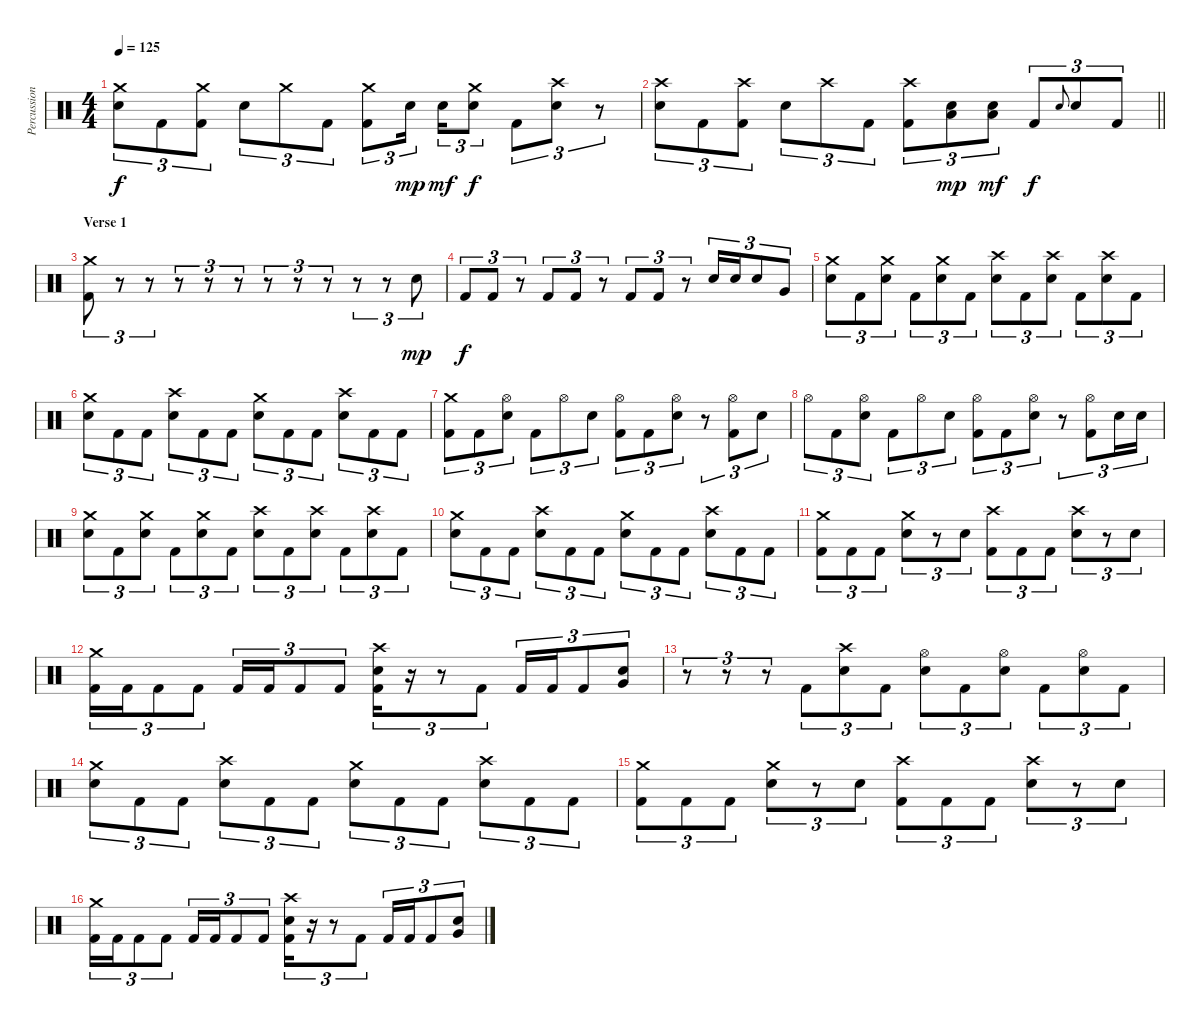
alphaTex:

\track ("Percussion" "Percussion") {instrument percussion}
\staff {score}
\articulation defaults
\ts (4 4)
\tempo 125
\clef neutral
\ks c
("Crash medium (hit)" "Electric Snare (hit)").8{tu (3 2) dy f} "Kick (hit) 2".8{tu (3 2)} ("Crash medium (hit)" "Kick (hit) 2").8{tu (3 2)} "Electric Snare (hit)".8{tu (3 2)} "Crash medium (hit)".8{tu (3 2)} "Kick (hit) 2".8{tu (3 2)} ("Crash medium (hit)" "Kick (hit) 2").8{tu (3 2)} "Electric Snare (hit)".16{tu (3 2) dy mp beam splitsecondary} "Electric Snare (hit)".16{tu (3 2) dy mf} ("Crash medium (hit)" "Electric Snare (hit)").8{tu (3 2) dy f} "Kick (hit) 2".8{tu (3 2)} ("Crash high (hit)" "Electric Snare (hit)").8{tu (3 2)} r.8{tu (3 2)} |
\barLineRight lightlight
("Crash high (hit)" "Electric Snare (hit)").8{tu (3 2)} "Kick (hit) 2".8{tu (3 2)} ("Crash high (hit)" "Kick (hit) 2").8{tu (3 2)} "Electric Snare (hit)".8{tu (3 2)} "Crash high (hit)".8{tu (3 2)} "Kick (hit) 2".8{tu (3 2)} ("Crash high (hit)" "Kick (hit) 2").8{tu (3 2)} ("Low Floor Tom (hit)" "Electric Snare (hit)").8{tu (3 2) dy mp} ("Low Floor Tom (hit)" "Electric Snare (hit)").8{tu (3 2) dy mf} "Kick (hit) 2".8{tu (3 2) dy f} "Electric Snare (hit)".8{gr onbeat} "Electric Snare (hit)".8{tu (3 2)} "Kick (hit) 2".8{tu (3 2)} |
\section ("" "Verse 1")
("Crash medium (hit)" "Kick (hit) 2").8{tu (3 2)} r.8{tu (3 2)} r.8{tu (3 2)} r.8{tu (3 2)} r.8{tu (3 2)} r.8{tu (3 2)} r.8{tu (3 2)} r.8{tu (3 2)} r.8{tu (3 2)} r.8{tu (3 2)} r.8{tu (3 2)} "Electric Snare (hit)".8{tu (3 2) dy mp} |
"Kick (hit) 2".8{tu (3 2) dy f} "Kick (hit) 2".8{tu (3 2)} r.8{tu (3 2)} "Kick (hit) 2".8{tu (3 2)} "Kick (hit) 2".8{tu (3 2)} r.8{tu (3 2)} "Kick (hit) 2".8{tu (3 2)} "Kick (hit) 2".8{tu (3 2)} r.8{tu (3 2)} "Electric Snare (hit)".16{tu (3 2)} "Electric Snare (hit)".16{tu (3 2)} "Electric Snare (hit)".8{tu (3 2)} "Very Low Tom (hit)".8{tu (3 2)} |
("Crash medium (hit)" "Electric Snare (hit)").8{tu (3 2)} "Kick (hit) 2".8{tu (3 2)} ("Crash medium (hit)" "Electric Snare (hit)").8{tu (3 2)} "Kick (hit) 2".8{tu (3 2)} ("Crash medium (hit)" "Electric Snare (hit)").8{tu (3 2)} "Kick (hit) 2".8{tu (3 2)} ("Crash high (hit)" "Electric Snare (hit)").8{tu (3 2)} "Kick (hit) 2".8{tu (3 2)} ("Crash high (hit)" "Electric Snare (hit)").8{tu (3 2)} "Kick (hit) 2".8{tu (3 2)} ("Crash high (hit)" "Electric Snare (hit)").8{tu (3 2)} "Kick (hit) 2".8{tu (3 2)} |
("Crash medium (hit)" "Electric Snare (hit)").8{tu (3 2)} "Kick (hit) 2".8{tu (3 2)} "Kick (hit) 2".8{tu (3 2)} ("Crash high (hit)" "Electric Snare (hit)").8{tu (3 2)} "Kick (hit) 2".8{tu (3 2)} "Kick (hit) 2".8{tu (3 2)} ("Crash medium (hit)" "Electric Snare (hit)").8{tu (3 2)} "Kick (hit) 2".8{tu (3 2)} "Kick (hit) 2".8{tu (3 2)} ("Crash high (hit)" "Electric Snare (hit)").8{tu (3 2)} "Kick (hit) 2".8{tu (3 2)} "Kick (hit) 2".8{tu (3 2)} |
("Crash medium (hit)" "Kick (hit) 2").8{tu (3 2)} "Kick (hit) 2".8{tu (3 2)} ("Hi-Hat (open)" "Electric Snare (hit)").8{tu (3 2)} "Kick (hit) 2".8{tu (3 2)} "Hi-Hat (open)".8{tu (3 2)} "Electric Snare (hit)".8{tu (3 2)} ("Hi-Hat (open)" "Kick (hit) 2").8{tu (3 2)} "Kick (hit) 2".8{tu (3 2)} ("Hi-Hat (open)" "Electric Snare (hit)").8{tu (3 2)} r.8{tu (3 2)} ("Hi-Hat (open)" "Kick (hit) 2").8{tu (3 2)} "Electric Snare (hit)".8{tu (3 2)} |
"Hi-Hat (open)".8{tu (3 2)} "Kick (hit) 2".8{tu (3 2)} ("Hi-Hat (open)" "Electric Snare (hit)").8{tu (3 2)} "Kick (hit) 2".8{tu (3 2)} "Hi-Hat (open)".8{tu (3 2)} "Electric Snare (hit)".8{tu (3 2)} ("Hi-Hat (open)" "Kick (hit) 2").8{tu (3 2)} "Kick (hit) 2".8{tu (3 2)} ("Hi-Hat (open)" "Electric Snare (hit)").8{tu (3 2)} r.8{tu (3 2)} ("Hi-Hat (open)" "Kick (hit) 2").8{tu (3 2)} "Electric Snare (hit)".16{tu (3 2)} "Electric Snare (hit)".16{tu (3 2)} |
("Crash medium (hit)" "Electric Snare (hit)").8{tu (3 2)} "Kick (hit) 2".8{tu (3 2)} ("Crash medium (hit)" "Electric Snare (hit)").8{tu (3 2)} "Kick (hit) 2".8{tu (3 2)} ("Crash medium (hit)" "Electric Snare (hit)").8{tu (3 2)} "Kick (hit) 2".8{tu (3 2)} ("Crash high (hit)" "Electric Snare (hit)").8{tu (3 2)} "Kick (hit) 2".8{tu (3 2)} ("Crash high (hit)" "Electric Snare (hit)").8{tu (3 2)} "Kick (hit) 2".8{tu (3 2)} ("Crash high (hit)" "Electric Snare (hit)").8{tu (3 2)} "Kick (hit) 2".8{tu (3 2)} |
("Crash medium (hit)" "Electric Snare (hit)").8{tu (3 2)} "Kick (hit) 2".8{tu (3 2)} "Kick (hit) 2".8{tu (3 2)} ("Crash high (hit)" "Electric Snare (hit)").8{tu (3 2)} "Kick (hit) 2".8{tu (3 2)} "Kick (hit) 2".8{tu (3 2)} ("Crash medium (hit)" "Electric Snare (hit)").8{tu (3 2)} "Kick (hit) 2".8{tu (3 2)} "Kick (hit) 2".8{tu (3 2)} ("Crash high (hit)" "Electric Snare (hit)").8{tu (3 2)} "Kick (hit) 2".8{tu (3 2)} "Kick (hit) 2".8{tu (3 2)} |
("Crash medium (hit)" "Kick (hit) 2").8{tu (3 2)} "Kick (hit) 2".8{tu (3 2)} "Kick (hit) 2".8{tu (3 2)} ("Crash medium (hit)" "Electric Snare (hit)").8{tu (3 2)} r.8{tu (3 2)} "Electric Snare (hit)".8{tu (3 2)} ("Crash high (hit)" "Kick (hit) 2").8{tu (3 2)} "Kick (hit) 2".8{tu (3 2)} "Kick (hit) 2".8{tu (3 2)} ("Crash high (hit)" "Electric Snare (hit)").8{tu (3 2)} r.8{tu (3 2)} "Electric Snare (hit)".8{tu (3 2)} |
("Crash medium (hit)" "Kick (hit) 2").16{tu (3 2)} "Kick (hit) 2".16{tu (3 2)} "Kick (hit) 2".8{tu (3 2)} "Kick (hit) 2".8{tu (3 2)} "Kick (hit) 2".16{tu (3 2)} "Kick (hit) 2".16{tu (3 2)} "Kick (hit) 2".8{tu (3 2)} "Kick (hit) 2".8{tu (3 2)} ("Crash high (hit)" "Electric Snare (hit)" "Kick (hit) 2").16{tu (3 2)} r.16{tu (3 2)} r.8{tu (3 2)} "Kick (hit) 2".8{tu (3 2)} "Kick (hit) 2".16{tu (3 2)} "Kick (hit) 2".16{tu (3 2)} "Kick (hit) 2".8{tu (3 2)} ("Very Low Tom (hit)" "Electric Snare (hit)").8{tu (3 2)} |
r.8{tu (3 2)} r.8{tu (3 2)} r.8{tu (3 2)} "Kick (hit) 2".8{tu (3 2)} ("Crash high (hit)" "Electric Snare (hit)").8{tu (3 2)} "Kick (hit) 2".8{tu (3 2)} ("Hi-Hat (open)" "Electric Snare (hit)").8{tu (3 2)} "Kick (hit) 2".8{tu (3 2)} ("Hi-Hat (open)" "Electric Snare (hit)").8{tu (3 2)} "Kick (hit) 2".8{tu (3 2)} ("Hi-Hat (open)" "Electric Snare (hit)").8{tu (3 2)} "Kick (hit) 2".8{tu (3 2)} |
("Crash medium (hit)" "Electric Snare (hit)").8{tu (3 2)} "Kick (hit) 2".8{tu (3 2)} "Kick (hit) 2".8{tu (3 2)} ("Crash high (hit)" "Electric Snare (hit)").8{tu (3 2)} "Kick (hit) 2".8{tu (3 2)} "Kick (hit) 2".8{tu (3 2)} ("Crash medium (hit)" "Electric Snare (hit)").8{tu (3 2)} "Kick (hit) 2".8{tu (3 2)} "Kick (hit) 2".8{tu (3 2)} ("Crash high (hit)" "Electric Snare (hit)").8{tu (3 2)} "Kick (hit) 2".8{tu (3 2)} "Kick (hit) 2".8{tu (3 2)} |
("Crash medium (hit)" "Kick (hit) 2").8{tu (3 2)} "Kick (hit) 2".8{tu (3 2)} "Kick (hit) 2".8{tu (3 2)} ("Crash medium (hit)" "Electric Snare (hit)").8{tu (3 2)} r.8{tu (3 2)} "Electric Snare (hit)".8{tu (3 2)} ("Crash high (hit)" "Kick (hit) 2").8{tu (3 2)} "Kick (hit) 2".8{tu (3 2)} "Kick (hit) 2".8{tu (3 2)} ("Crash high (hit)" "Electric Snare (hit)").8{tu (3 2)} r.8{tu (3 2)} "Electric Snare (hit)".8{tu (3 2)} |
("Crash medium (hit)" "Kick (hit) 2").16{tu (3 2)} "Kick (hit) 2".16{tu (3 2)} "Kick (hit) 2".8{tu (3 2)} "Kick (hit) 2".8{tu (3 2)} "Kick (hit) 2".16{tu (3 2)} "Kick (hit) 2".16{tu (3 2)} "Kick (hit) 2".8{tu (3 2)} "Kick (hit) 2".8{tu (3 2)} ("Crash high (hit)" "Electric Snare (hit)" "Kick (hit) 2").16{tu (3 2)} r.16{tu (3 2)} r.8{tu (3 2)} "Kick (hit) 2".8{tu (3 2)} "Kick (hit) 2".16{tu (3 2)} "Kick (hit) 2".16{tu (3 2)} "Kick (hit) 2".8{tu (3 2)} ("Very Low Tom (hit)" "Electric Snare (hit)").8{tu (3 2)}
